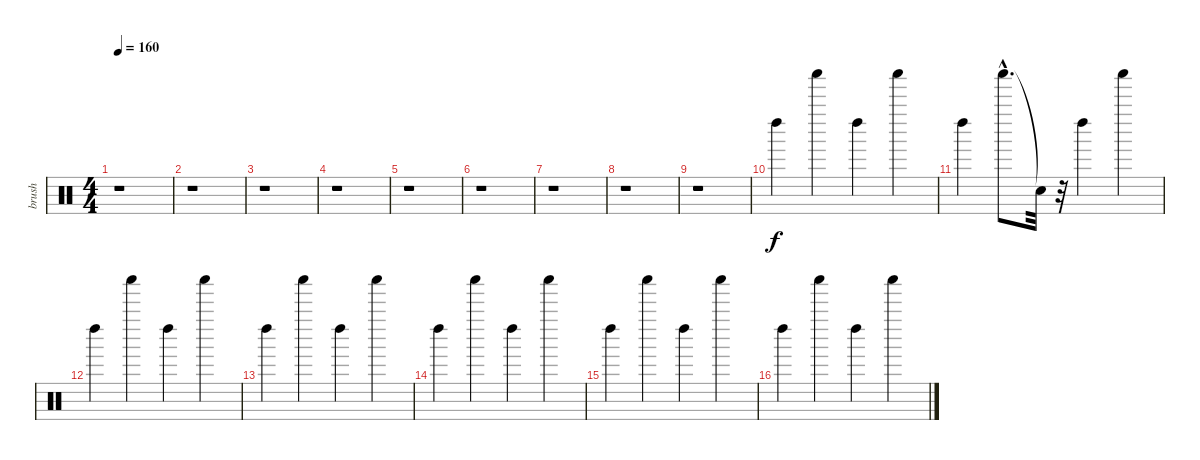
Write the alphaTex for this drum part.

\track ("brush" "brush") {instrument percussion}
\staff {score}
\articulation defaults
\ts (4 4)
\tempo 160
\clef neutral
\ks c
r.1{dy f} |
r.1 |
r.1 |
r.1 |
r.1 |
r.1 |
r.1 |
r.1 |
r.1 |
"Left Maraca (hit)".4 "Shaker (hit)".4 "Left Maraca (hit)".4 "Shaker (hit)".4 |
"Left Maraca (hit)".4 "Shaker (hit)"{hac}.8{d} "Snare (hit)"{t}.32 r.32 "Left Maraca (hit)".4 "Shaker (hit)".4 |
"Left Maraca (hit)".4 "Shaker (hit)".4 "Left Maraca (hit)".4 "Shaker (hit)".4 |
"Left Maraca (hit)".4 "Shaker (hit)".4 "Left Maraca (hit)".4 "Shaker (hit)".4 |
"Left Maraca (hit)".4 "Shaker (hit)".4 "Left Maraca (hit)".4 "Shaker (hit)".4 |
"Left Maraca (hit)".4 "Shaker (hit)".4 "Left Maraca (hit)".4 "Shaker (hit)".4 |
"Left Maraca (hit)".4 "Shaker (hit)".4 "Left Maraca (hit)".4 "Shaker (hit)".4
